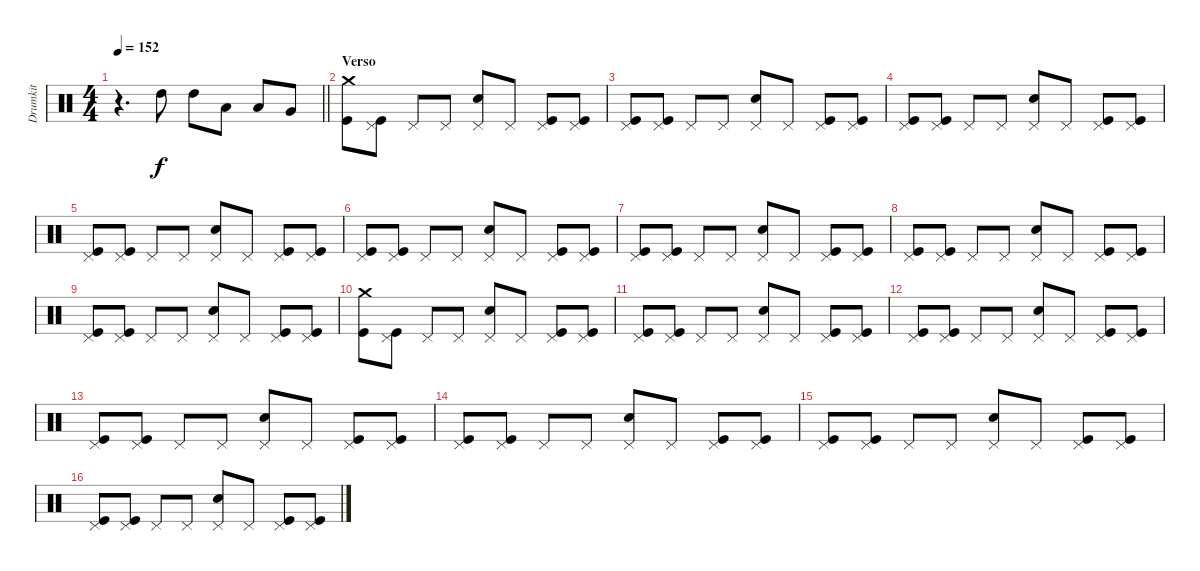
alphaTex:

\track ("Drumkit" "Drumkit") {instrument percussion}
\staff {score}
\articulation defaults
\ts (4 4)
\tempo 152
\clef neutral
\barLineRight lightlight
\ks c
r.4{d dy f} "High Tom (hit)".8 "High Tom (hit)".8 "Low Tom (hit)".8 "Low Tom (hit)".8 "Very Low Tom (hit)".8 |
\section ("" "Verso")
("Crash medium (hit)" "Kick (hit)").8 ("Pedal Hi-Hat (hit)" "Kick (hit)").8 "Pedal Hi-Hat (hit)".8 "Pedal Hi-Hat (hit)".8 ("Pedal Hi-Hat (hit)" "Snare (hit) 2").8 "Pedal Hi-Hat (hit)".8 ("Pedal Hi-Hat (hit)" "Kick (hit)").8 ("Pedal Hi-Hat (hit)" "Kick (hit)").8 |
("Pedal Hi-Hat (hit)" "Kick (hit)").8 ("Pedal Hi-Hat (hit)" "Kick (hit)").8 "Pedal Hi-Hat (hit)".8 "Pedal Hi-Hat (hit)".8 ("Pedal Hi-Hat (hit)" "Snare (hit) 2").8 "Pedal Hi-Hat (hit)".8 ("Pedal Hi-Hat (hit)" "Kick (hit)").8 ("Pedal Hi-Hat (hit)" "Kick (hit)").8 |
("Pedal Hi-Hat (hit)" "Kick (hit)").8 ("Pedal Hi-Hat (hit)" "Kick (hit)").8 "Pedal Hi-Hat (hit)".8 "Pedal Hi-Hat (hit)".8 ("Pedal Hi-Hat (hit)" "Snare (hit) 2").8 "Pedal Hi-Hat (hit)".8 ("Pedal Hi-Hat (hit)" "Kick (hit)").8 ("Pedal Hi-Hat (hit)" "Kick (hit)").8 |
("Pedal Hi-Hat (hit)" "Kick (hit)").8 ("Pedal Hi-Hat (hit)" "Kick (hit)").8 "Pedal Hi-Hat (hit)".8 "Pedal Hi-Hat (hit)".8 ("Pedal Hi-Hat (hit)" "Snare (hit) 2").8 "Pedal Hi-Hat (hit)".8 ("Pedal Hi-Hat (hit)" "Kick (hit)").8 ("Pedal Hi-Hat (hit)" "Kick (hit)").8 |
("Pedal Hi-Hat (hit)" "Kick (hit)").8 ("Pedal Hi-Hat (hit)" "Kick (hit)").8 "Pedal Hi-Hat (hit)".8 "Pedal Hi-Hat (hit)".8 ("Pedal Hi-Hat (hit)" "Snare (hit) 2").8 "Pedal Hi-Hat (hit)".8 ("Pedal Hi-Hat (hit)" "Kick (hit)").8 ("Pedal Hi-Hat (hit)" "Kick (hit)").8 |
("Pedal Hi-Hat (hit)" "Kick (hit)").8 ("Pedal Hi-Hat (hit)" "Kick (hit)").8 "Pedal Hi-Hat (hit)".8 "Pedal Hi-Hat (hit)".8 ("Pedal Hi-Hat (hit)" "Snare (hit) 2").8 "Pedal Hi-Hat (hit)".8 ("Pedal Hi-Hat (hit)" "Kick (hit)").8 ("Pedal Hi-Hat (hit)" "Kick (hit)").8 |
("Pedal Hi-Hat (hit)" "Kick (hit)").8 ("Pedal Hi-Hat (hit)" "Kick (hit)").8 "Pedal Hi-Hat (hit)".8 "Pedal Hi-Hat (hit)".8 ("Pedal Hi-Hat (hit)" "Snare (hit) 2").8 "Pedal Hi-Hat (hit)".8 ("Pedal Hi-Hat (hit)" "Kick (hit)").8 ("Pedal Hi-Hat (hit)" "Kick (hit)").8 |
("Pedal Hi-Hat (hit)" "Kick (hit)").8 ("Pedal Hi-Hat (hit)" "Kick (hit)").8 "Pedal Hi-Hat (hit)".8 "Pedal Hi-Hat (hit)".8 ("Pedal Hi-Hat (hit)" "Snare (hit) 2").8 "Pedal Hi-Hat (hit)".8 ("Pedal Hi-Hat (hit)" "Kick (hit)").8 ("Pedal Hi-Hat (hit)" "Kick (hit)").8 |
("Crash medium (hit)" "Kick (hit)").8 ("Pedal Hi-Hat (hit)" "Kick (hit)").8 "Pedal Hi-Hat (hit)".8 "Pedal Hi-Hat (hit)".8 ("Pedal Hi-Hat (hit)" "Snare (hit) 2").8 "Pedal Hi-Hat (hit)".8 ("Pedal Hi-Hat (hit)" "Kick (hit)").8 ("Pedal Hi-Hat (hit)" "Kick (hit)").8 |
("Pedal Hi-Hat (hit)" "Kick (hit)").8 ("Pedal Hi-Hat (hit)" "Kick (hit)").8 "Pedal Hi-Hat (hit)".8 "Pedal Hi-Hat (hit)".8 ("Pedal Hi-Hat (hit)" "Snare (hit) 2").8 "Pedal Hi-Hat (hit)".8 ("Pedal Hi-Hat (hit)" "Kick (hit)").8 ("Pedal Hi-Hat (hit)" "Kick (hit)").8 |
("Pedal Hi-Hat (hit)" "Kick (hit)").8 ("Pedal Hi-Hat (hit)" "Kick (hit)").8 "Pedal Hi-Hat (hit)".8 "Pedal Hi-Hat (hit)".8 ("Pedal Hi-Hat (hit)" "Snare (hit) 2").8 "Pedal Hi-Hat (hit)".8 ("Pedal Hi-Hat (hit)" "Kick (hit)").8 ("Pedal Hi-Hat (hit)" "Kick (hit)").8 |
("Pedal Hi-Hat (hit)" "Kick (hit)").8 ("Pedal Hi-Hat (hit)" "Kick (hit)").8 "Pedal Hi-Hat (hit)".8 "Pedal Hi-Hat (hit)".8 ("Pedal Hi-Hat (hit)" "Snare (hit) 2").8 "Pedal Hi-Hat (hit)".8 ("Pedal Hi-Hat (hit)" "Kick (hit)").8 ("Pedal Hi-Hat (hit)" "Kick (hit)").8 |
("Pedal Hi-Hat (hit)" "Kick (hit)").8 ("Pedal Hi-Hat (hit)" "Kick (hit)").8 "Pedal Hi-Hat (hit)".8 "Pedal Hi-Hat (hit)".8 ("Pedal Hi-Hat (hit)" "Snare (hit) 2").8 "Pedal Hi-Hat (hit)".8 ("Pedal Hi-Hat (hit)" "Kick (hit)").8 ("Pedal Hi-Hat (hit)" "Kick (hit)").8 |
("Pedal Hi-Hat (hit)" "Kick (hit)").8 ("Pedal Hi-Hat (hit)" "Kick (hit)").8 "Pedal Hi-Hat (hit)".8 "Pedal Hi-Hat (hit)".8 ("Pedal Hi-Hat (hit)" "Snare (hit) 2").8 "Pedal Hi-Hat (hit)".8 ("Pedal Hi-Hat (hit)" "Kick (hit)").8 ("Pedal Hi-Hat (hit)" "Kick (hit)").8 |
("Pedal Hi-Hat (hit)" "Kick (hit)").8 ("Pedal Hi-Hat (hit)" "Kick (hit)").8 "Pedal Hi-Hat (hit)".8 "Pedal Hi-Hat (hit)".8 ("Pedal Hi-Hat (hit)" "Snare (hit) 2").8 "Pedal Hi-Hat (hit)".8 ("Pedal Hi-Hat (hit)" "Kick (hit)").8 ("Pedal Hi-Hat (hit)" "Kick (hit)").8
